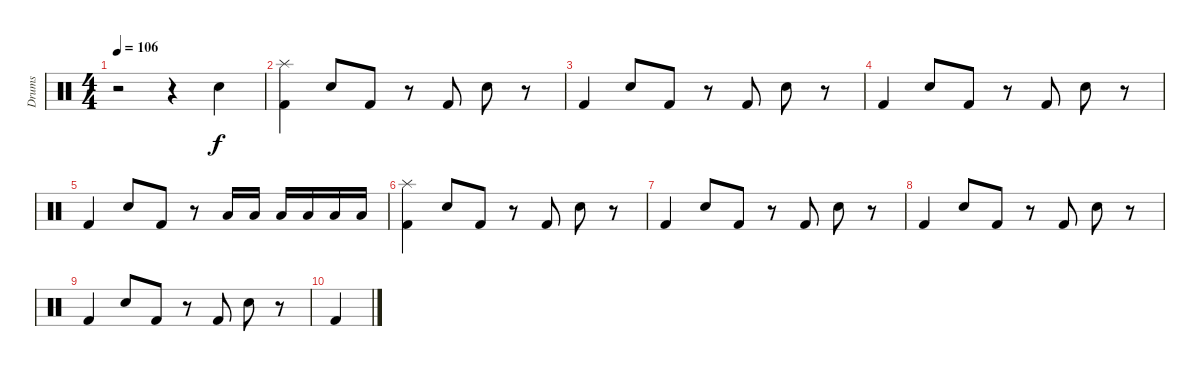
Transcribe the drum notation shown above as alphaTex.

\track ("Drums" "Drums") {instrument percussion}
\staff {score}
\articulation defaults
\ts (4 4)
\tempo 106
\clef neutral
\ks c
r.2{dy f} r.4 "Snare (hit) 2".4 |
("Splash (hit)" "Kick (hit) 2").4 "Snare (hit) 2".8 "Kick (hit) 2".8 r.8 "Kick (hit) 2".8 "Snare (hit) 2".8 r.8 |
"Kick (hit) 2".4 "Snare (hit) 2".8 "Kick (hit) 2".8 r.8 "Kick (hit) 2".8 "Snare (hit) 2".8 r.8 |
"Kick (hit) 2".4 "Snare (hit) 2".8 "Kick (hit) 2".8 r.8 "Kick (hit) 2".8 "Snare (hit) 2".8 r.8 |
"Kick (hit) 2".4 "Snare (hit) 2".8 "Kick (hit) 2".8 r.8 "Low Tom (hit)".16 "Low Tom (hit)".16 "Low Floor Tom (hit)".16 "Low Floor Tom (hit)".16 "Low Floor Tom (hit)".16 "Low Floor Tom (hit)".16 |
("Splash (hit)" "Kick (hit) 2").4 "Snare (hit) 2".8 "Kick (hit) 2".8 r.8 "Kick (hit) 2".8 "Snare (hit) 2".8 r.8 |
"Kick (hit) 2".4 "Snare (hit) 2".8 "Kick (hit) 2".8 r.8 "Kick (hit) 2".8 "Snare (hit) 2".8 r.8 |
"Kick (hit) 2".4 "Snare (hit) 2".8 "Kick (hit) 2".8 r.8 "Kick (hit) 2".8 "Snare (hit) 2".8 r.8 |
"Kick (hit) 2".4 "Snare (hit) 2".8 "Kick (hit) 2".8 r.8 "Kick (hit) 2".8 "Snare (hit) 2".8 r.8 |
"Kick (hit) 2".4
